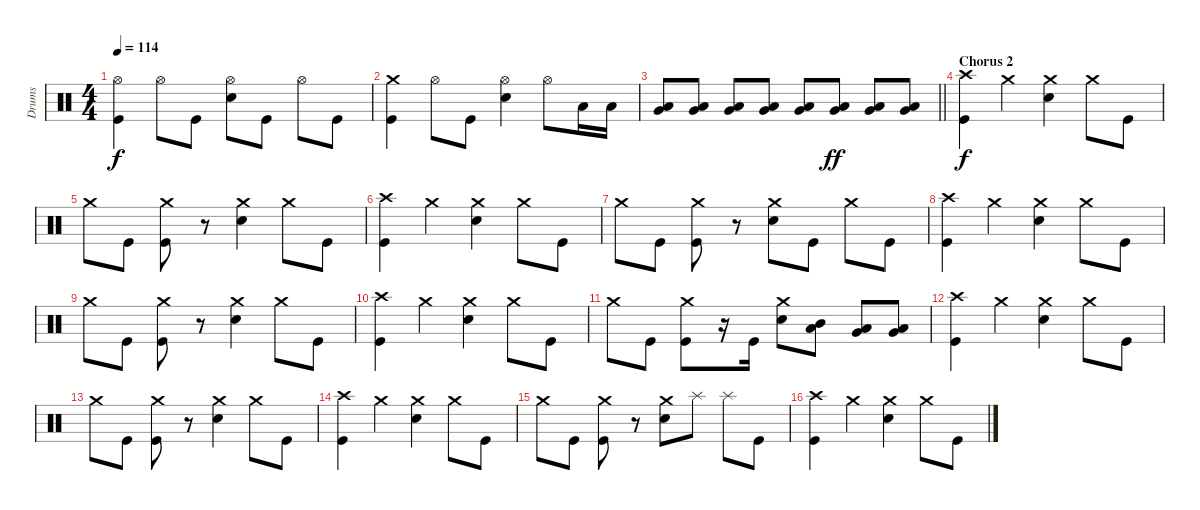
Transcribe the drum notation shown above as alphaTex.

\track ("Drums" "Drums") {instrument percussion}
\staff {score}
\articulation defaults
\ts (4 4)
\tempo 114
\clef neutral
\ks c
("Hi-Hat (open)" "Kick (hit)").4{dy f} "Hi-Hat (open)".8 "Kick (hit)".8 ("Hi-Hat (open)" "Electric Snare (hit)").8 "Kick (hit)".8 "Hi-Hat (open)".8 "Kick (hit)".8 |
("Crash medium (hit)" "Kick (hit)").4 "Hi-Hat (open)".8 "Kick (hit)".8 ("Hi-Hat (open)" "Electric Snare (hit)").4 "Hi-Hat (open)".8 "Low Floor Tom (hit)".16 "Low Floor Tom (hit)".16 |
\barLineRight lightlight
("Very Low Tom (hit)" "Low Floor Tom (hit)").8 ("Very Low Tom (hit)" "Low Floor Tom (hit)").8 ("Very Low Tom (hit)" "Low Floor Tom (hit)").8 ("Very Low Tom (hit)" "Low Floor Tom (hit)").8 ("Very Low Tom (hit)" "Low Floor Tom (hit)").8 ("Very Low Tom (hit)" "Low Floor Tom (hit)").8{dy ff} ("Very Low Tom (hit)" "Low Floor Tom (hit)").8 ("Very Low Tom (hit)" "Low Floor Tom (hit)").8 |
\section ("" "Chorus 2")
("Crash high (hit)" "Kick (hit)").4{dy f} "Crash medium (hit)".4 ("Crash medium (hit)" "Electric Snare (hit)").4 "Crash medium (hit)".8 "Kick (hit)".8 |
"Crash medium (hit)".8 "Kick (hit)".8 ("Crash medium (hit)" "Kick (hit)").8 r.8 ("Crash medium (hit)" "Electric Snare (hit)").4 "Crash medium (hit)".8 "Kick (hit)".8 |
("Crash high (hit)" "Kick (hit)").4 "Crash medium (hit)".4 ("Crash medium (hit)" "Electric Snare (hit)").4 "Crash medium (hit)".8 "Kick (hit)".8 |
"Crash medium (hit)".8 "Kick (hit)".8 ("Crash medium (hit)" "Kick (hit)").8 r.8 ("Crash medium (hit)" "Electric Snare (hit)").8 "Kick (hit)".8 "Crash medium (hit)".8 "Kick (hit)".8 |
("Crash high (hit)" "Kick (hit)").4 "Crash medium (hit)".4 ("Crash medium (hit)" "Electric Snare (hit)").4 "Crash medium (hit)".8 "Kick (hit)".8 |
"Crash medium (hit)".8 "Kick (hit)".8 ("Crash medium (hit)" "Kick (hit)").8 r.8 ("Crash medium (hit)" "Electric Snare (hit)").4 "Crash medium (hit)".8 "Kick (hit)".8 |
("Crash high (hit)" "Kick (hit)").4 "Crash medium (hit)".4 ("Crash medium (hit)" "Electric Snare (hit)").4 "Crash medium (hit)".8 "Kick (hit)".8 |
"Crash medium (hit)".8 "Kick (hit)".8 ("Crash medium (hit)" "Kick (hit)").8 r.16 "Kick (hit)".16 ("Crash medium (hit)" "Electric Snare (hit)").8 ("Mid Tom (hit)" "Low Tom (hit)").8 ("Low Tom (hit)" "Very Low Tom (hit)").8 ("Very Low Tom (hit)" "Low Floor Tom (hit)").8 |
("Crash high (hit)" "Kick (hit)").4 "Crash medium (hit)".4 ("Crash medium (hit)" "Electric Snare (hit)").4 "Crash medium (hit)".8 "Kick (hit)".8 |
"Crash medium (hit)".8 "Kick (hit)".8 ("Crash medium (hit)" "Kick (hit)").8 r.8 ("Crash medium (hit)" "Electric Snare (hit)").4 "Crash medium (hit)".8 "Kick (hit)".8 |
("Crash high (hit)" "Kick (hit)").4 "Crash medium (hit)".4 ("Crash medium (hit)" "Electric Snare (hit)").4 "Crash medium (hit)".8 "Kick (hit)".8 |
"Crash medium (hit)".8 "Kick (hit)".8 ("Crash medium (hit)" "Kick (hit)").8 r.8 ("Crash medium (hit)" "Electric Snare (hit)").8 "Splash (hit)".8 "Splash (hit)".8 "Kick (hit)".8 |
("Crash high (hit)" "Kick (hit)").4 "Crash medium (hit)".4 ("Crash medium (hit)" "Electric Snare (hit)").4 "Crash medium (hit)".8 "Kick (hit)".8
